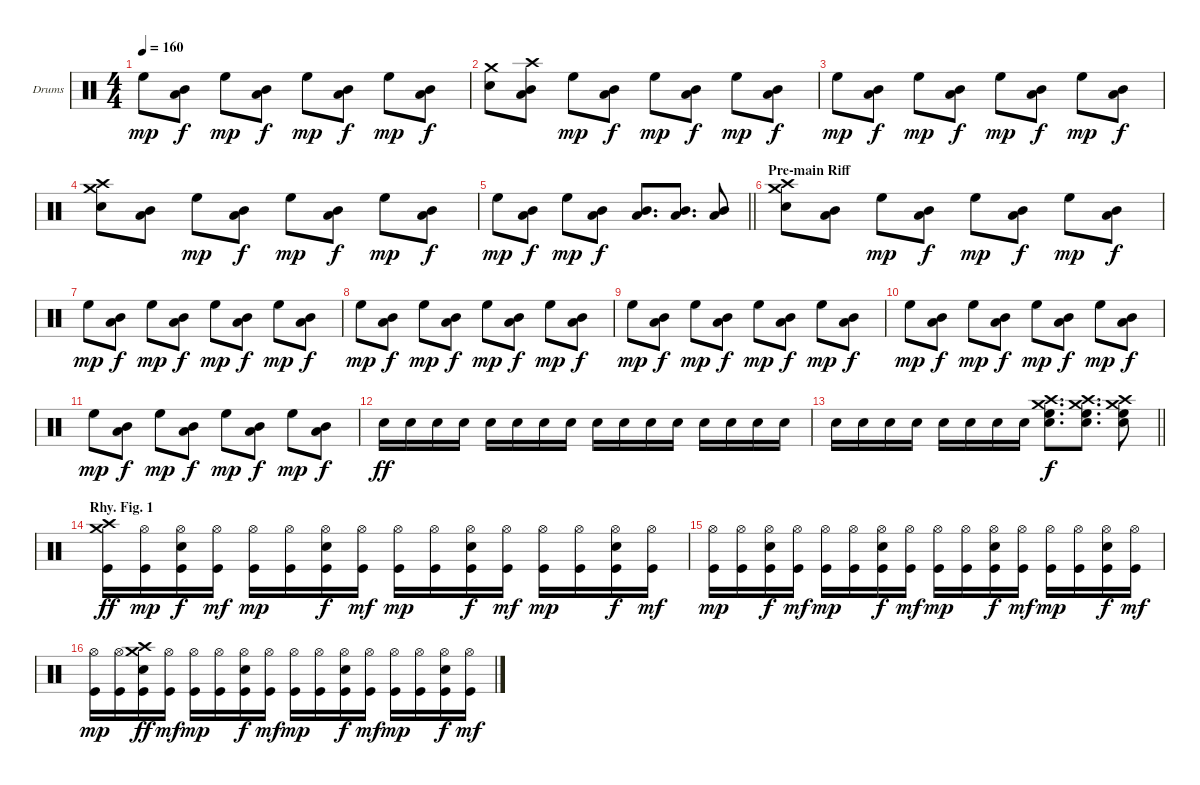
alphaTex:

\bracketExtendMode groupsimilarinstruments
\firstSystemTrackNameOrientation horizontal
\otherSystemsTrackNameOrientation horizontal
\track ("Drumkit" "Drums") {instrument percussion}
\staff {score}
\articulation defaults
\ts (4 4)
\tempo 160
\clef neutral
\ks c "High Floor Tom (hit)".8{dy mp}
("Mid Tom (hit)" "Low Tom (hit)").8{dy f} "High Floor Tom (hit)".8{dy mp} ("Mid Tom (hit)" "Low Tom (hit)").8{dy f} "High Floor Tom (hit)".8{dy mp} ("Mid Tom (hit)" "Low Tom (hit)").8{dy f} "High Floor Tom (hit)".8{dy mp} ("Mid Tom (hit)" "Low Tom (hit)").8{dy f} |
("Crash medium (hit)" "Snare (hit) 2").8 ("Crash high (hit)" "Mid Tom (hit)" "Low Tom (hit)").8 "High Floor Tom (hit)".8{dy mp} ("Mid Tom (hit)" "Low Tom (hit)").8{dy f} "High Floor Tom (hit)".8{dy mp} ("Mid Tom (hit)" "Low Tom (hit)").8{dy f} "High Floor Tom (hit)".8{dy mp} ("Mid Tom (hit)" "Low Tom (hit)").8{dy f} |
"High Floor Tom (hit)".8{dy mp} ("Mid Tom (hit)" "Low Tom (hit)").8{dy f} "High Floor Tom (hit)".8{dy mp} ("Mid Tom (hit)" "Low Tom (hit)").8{dy f} "High Floor Tom (hit)".8{dy mp} ("Mid Tom (hit)" "Low Tom (hit)").8{dy f} "High Floor Tom (hit)".8{dy mp} ("Mid Tom (hit)" "Low Tom (hit)").8{dy f} |
("Crash medium (hit)" "Crash high (hit)" "Snare (hit) 2").8 ("Mid Tom (hit)" "Low Tom (hit)").8 "High Floor Tom (hit)".8{dy mp} ("Mid Tom (hit)" "Low Tom (hit)").8{dy f} "High Floor Tom (hit)".8{dy mp} ("Mid Tom (hit)" "Low Tom (hit)").8{dy f} "High Floor Tom (hit)".8{dy mp} ("Mid Tom (hit)" "Low Tom (hit)").8{dy f} |
\barLineRight lightlight "High Floor Tom (hit)".8{dy mp}
("Mid Tom (hit)" "Low Tom (hit)").8{dy f} "High Floor Tom (hit)".8{dy mp} ("Mid Tom (hit)" "Low Tom (hit)").8{dy f} ("Mid Tom (hit)" "Low Tom (hit)").8{d} ("Mid Tom (hit)" "Low Tom (hit)").8{d} ("Mid Tom (hit)" "Low Tom (hit)").8 |
\section ("" "Pre-main Riff")
("Crash medium (hit)" "Crash high (hit)" "Snare (hit) 2").8 ("Mid Tom (hit)" "Low Tom (hit)").8 "High Floor Tom (hit)".8{dy mp} ("Mid Tom (hit)" "Low Tom (hit)").8{dy f} "High Floor Tom (hit)".8{dy mp} ("Mid Tom (hit)" "Low Tom (hit)").8{dy f} "High Floor Tom (hit)".8{dy mp} ("Mid Tom (hit)" "Low Tom (hit)").8{dy f} |
"High Floor Tom (hit)".8{dy mp} ("Mid Tom (hit)" "Low Tom (hit)").8{dy f} "High Floor Tom (hit)".8{dy mp} ("Mid Tom (hit)" "Low Tom (hit)").8{dy f} "High Floor Tom (hit)".8{dy mp} ("Mid Tom (hit)" "Low Tom (hit)").8{dy f} "High Floor Tom (hit)".8{dy mp} ("Mid Tom (hit)" "Low Tom (hit)").8{dy f} |
"High Floor Tom (hit)".8{dy mp} ("Mid Tom (hit)" "Low Tom (hit)").8{dy f} "High Floor Tom (hit)".8{dy mp} ("Mid Tom (hit)" "Low Tom (hit)").8{dy f} "High Floor Tom (hit)".8{dy mp} ("Mid Tom (hit)" "Low Tom (hit)").8{dy f} "High Floor Tom (hit)".8{dy mp} ("Mid Tom (hit)" "Low Tom (hit)").8{dy f} |
"High Floor Tom (hit)".8{dy mp} ("Mid Tom (hit)" "Low Tom (hit)").8{dy f} "High Floor Tom (hit)".8{dy mp} ("Mid Tom (hit)" "Low Tom (hit)").8{dy f} "High Floor Tom (hit)".8{dy mp} ("Mid Tom (hit)" "Low Tom (hit)").8{dy f} "High Floor Tom (hit)".8{dy mp} ("Mid Tom (hit)" "Low Tom (hit)").8{dy f} |
"High Floor Tom (hit)".8{dy mp} ("Mid Tom (hit)" "Low Tom (hit)").8{dy f} "High Floor Tom (hit)".8{dy mp} ("Mid Tom (hit)" "Low Tom (hit)").8{dy f} "High Floor Tom (hit)".8{dy mp} ("Mid Tom (hit)" "Low Tom (hit)").8{dy f} "High Floor Tom (hit)".8{dy mp} ("Mid Tom (hit)" "Low Tom (hit)").8{dy f} |
"High Floor Tom (hit)".8{dy mp} ("Mid Tom (hit)" "Low Tom (hit)").8{dy f} "High Floor Tom (hit)".8{dy mp} ("Mid Tom (hit)" "Low Tom (hit)").8{dy f} "High Floor Tom (hit)".8{dy mp} ("Mid Tom (hit)" "Low Tom (hit)").8{dy f} "High Floor Tom (hit)".8{dy mp} ("Mid Tom (hit)" "Low Tom (hit)").8{dy f} |
"Snare (hit) 2".16{dy ff} "Snare (hit) 2".16 "Snare (hit) 2".16 "Snare (hit) 2".16 "Snare (hit) 2".16 "Snare (hit) 2".16 "Snare (hit) 2".16 "Snare (hit) 2".16 "Snare (hit) 2".16 "Snare (hit) 2".16 "Snare (hit) 2".16 "Snare (hit) 2".16 "Snare (hit) 2".16 "Snare (hit) 2".16 "Snare (hit) 2".16 "Snare (hit) 2".16 |
\barLineRight lightlight "Snare (hit) 2".16 "Snare (hit) 2".16 "Snare (hit) 2".16 "Snare (hit) 2".16 "Snare (hit) 2".16 "Snare (hit) 2".16 "Snare (hit) 2".16 "Snare (hit) 2".16
("Crash medium (hit)" "Crash high (hit)" "Snare (hit) 2" "High Floor Tom (hit)").8{d dy f} ("Crash medium (hit)" "Crash high (hit)" "Snare (hit) 2" "High Floor Tom (hit)").8{d} ("Crash medium (hit)" "Crash high (hit)" "Snare (hit) 2" "High Floor Tom (hit)").8 |
\section ("" "Rhy. Fig. 1")
("Crash medium (hit)" "Crash high (hit)" "Kick (hit)").16{dy ff} ("Hi-Hat (open)" "Kick (hit)").16{dy mp} ("Hi-Hat (open)" "Snare (hit) 2" "Kick (hit)").16{dy f} ("Hi-Hat (open)" "Kick (hit)").16{dy mf} ("Hi-Hat (open)" "Kick (hit)").16{dy mp} ("Hi-Hat (open)" "Kick (hit)").16 ("Hi-Hat (open)" "Snare (hit) 2" "Kick (hit)").16{dy f} ("Hi-Hat (open)" "Kick (hit)").16{dy mf} ("Hi-Hat (open)" "Kick (hit)").16{dy mp} ("Hi-Hat (open)" "Kick (hit)").16 ("Hi-Hat (open)" "Snare (hit) 2" "Kick (hit)").16{dy f} ("Hi-Hat (open)" "Kick (hit)").16{dy mf} ("Hi-Hat (open)" "Kick (hit)").16{dy mp} ("Hi-Hat (open)" "Kick (hit)").16 ("Hi-Hat (open)" "Snare (hit) 2" "Kick (hit)").16{dy f} ("Hi-Hat (open)" "Kick (hit)").16{dy mf} |
("Hi-Hat (open)" "Kick (hit)").16{dy mp} ("Hi-Hat (open)" "Kick (hit)").16 ("Hi-Hat (open)" "Snare (hit) 2" "Kick (hit)").16{dy f} ("Hi-Hat (open)" "Kick (hit)").16{dy mf} ("Hi-Hat (open)" "Kick (hit)").16{dy mp} ("Hi-Hat (open)" "Kick (hit)").16 ("Hi-Hat (open)" "Snare (hit) 2" "Kick (hit)").16{dy f} ("Hi-Hat (open)" "Kick (hit)").16{dy mf} ("Hi-Hat (open)" "Kick (hit)").16{dy mp} ("Hi-Hat (open)" "Kick (hit)").16 ("Hi-Hat (open)" "Snare (hit) 2" "Kick (hit)").16{dy f} ("Hi-Hat (open)" "Kick (hit)").16{dy mf} ("Hi-Hat (open)" "Kick (hit)").16{dy mp} ("Hi-Hat (open)" "Kick (hit)").16 ("Hi-Hat (open)" "Snare (hit) 2" "Kick (hit)").16{dy f} ("Hi-Hat (open)" "Kick (hit)").16{dy mf} |
("Hi-Hat (open)" "Kick (hit)").16{dy mp} ("Hi-Hat (open)" "Kick (hit)").16 ("Crash medium (hit)" "Crash high (hit)" "Snare (hit) 2" "Kick (hit)").16{dy ff} ("Hi-Hat (open)" "Kick (hit)").16{dy mf} ("Hi-Hat (open)" "Kick (hit)").16{dy mp} ("Hi-Hat (open)" "Kick (hit)").16 ("Hi-Hat (open)" "Snare (hit) 2" "Kick (hit)").16{dy f} ("Hi-Hat (open)" "Kick (hit)").16{dy mf} ("Hi-Hat (open)" "Kick (hit)").16{dy mp} ("Hi-Hat (open)" "Kick (hit)").16 ("Hi-Hat (open)" "Snare (hit) 2" "Kick (hit)").16{dy f} ("Hi-Hat (open)" "Kick (hit)").16{dy mf} ("Hi-Hat (open)" "Kick (hit)").16{dy mp} ("Hi-Hat (open)" "Kick (hit)").16 ("Hi-Hat (open)" "Snare (hit) 2" "Kick (hit)").16{dy f} ("Hi-Hat (open)" "Kick (hit)").16{dy mf}
